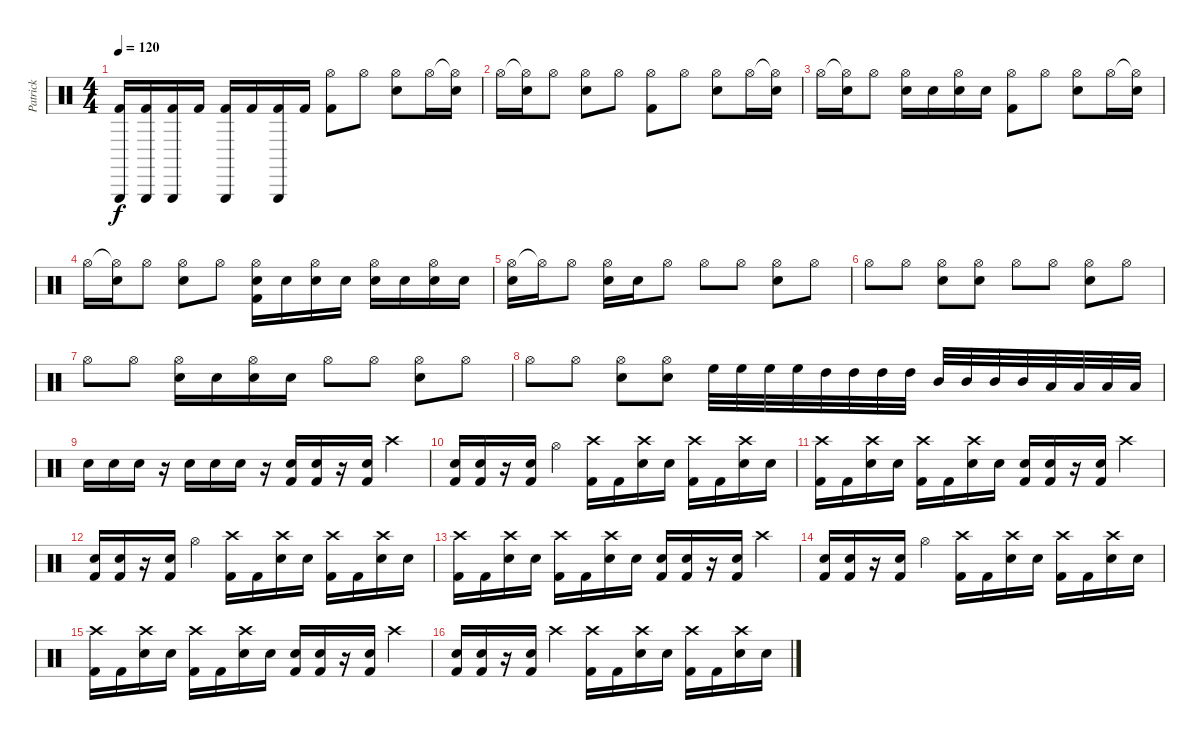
\track ("Patrick" "Patrick") {instrument percussion}
\staff {score}
\articulation defaults
\ts (4 4)
\tempo 120
\clef neutral
\ks c
("Triangle (hit)" "Kick (hit) 2").16{dy f} ("Triangle (hit)" "Kick (hit) 2").16 ("Triangle (hit)" "Kick (hit) 2").16 "Kick (hit) 2".16 ("Triangle (hit)" "Kick (hit) 2").16 "Kick (hit) 2".16 ("Triangle (hit)" "Kick (hit) 2").16 "Kick (hit) 2".16 ("Hi-Hat (open)" "Kick (hit) 2").8 "Hi-Hat (open)".8 ("Hi-Hat (open)" "Snare (hit) 2").8 "Hi-Hat (open)".16 ("Hi-Hat (open)"{t} "Snare (hit) 2").16 |
"Hi-Hat (open)".16 ("Hi-Hat (open)"{t} "Snare (hit) 2").16 "Hi-Hat (open)".8 ("Hi-Hat (open)" "Snare (hit) 2").8 "Hi-Hat (open)".8 ("Hi-Hat (open)" "Kick (hit) 2").8 "Hi-Hat (open)".8 ("Hi-Hat (open)" "Snare (hit) 2").8 "Hi-Hat (open)".16 ("Hi-Hat (open)"{t} "Snare (hit) 2").16 |
"Hi-Hat (open)".16 ("Hi-Hat (open)"{t} "Snare (hit) 2").16 "Hi-Hat (open)".8 ("Hi-Hat (open)" "Snare (hit) 2").16 "Snare (hit) 2".16 ("Hi-Hat (open)" "Snare (hit) 2").16 "Snare (hit) 2".16 ("Hi-Hat (open)" "Kick (hit) 2").8 "Hi-Hat (open)".8 ("Hi-Hat (open)" "Snare (hit) 2").8 "Hi-Hat (open)".16 ("Hi-Hat (open)"{t} "Snare (hit) 2").16 |
"Hi-Hat (open)".16 ("Hi-Hat (open)"{t} "Snare (hit) 2").16 "Hi-Hat (open)".8 ("Hi-Hat (open)" "Snare (hit) 2").8 "Hi-Hat (open)".8 ("Hi-Hat (open)" "Snare (hit) 2" "Kick (hit) 2").16 "Snare (hit) 2".16 ("Hi-Hat (open)" "Snare (hit) 2").16 "Snare (hit) 2".16 ("Hi-Hat (open)" "Snare (hit) 2").16 "Snare (hit) 2".16 ("Hi-Hat (open)" "Snare (hit) 2").16 "Snare (hit) 2".16 |
("Hi-Hat (open)" "Snare (hit) 2").16 "Hi-Hat (open)"{t}.16 "Hi-Hat (open)".8 ("Hi-Hat (open)" "Snare (hit) 2").16 "Snare (hit) 2".16 "Hi-Hat (open)".8 "Hi-Hat (open)".8 "Hi-Hat (open)".8 ("Hi-Hat (open)" "Snare (hit) 2").8 "Hi-Hat (open)".8 |
"Hi-Hat (open)".8 "Hi-Hat (open)".8 ("Hi-Hat (open)" "Snare (hit) 2").8 ("Hi-Hat (open)" "Snare (hit) 2").8 "Hi-Hat (open)".8 "Hi-Hat (open)".8 ("Hi-Hat (open)" "Snare (hit) 2").8 "Hi-Hat (open)".8 |
"Hi-Hat (open)".8 "Hi-Hat (open)".8 ("Hi-Hat (open)" "Snare (hit) 2").16 "Snare (hit) 2".16 ("Hi-Hat (open)" "Snare (hit) 2").16 "Snare (hit) 2".16 "Hi-Hat (open)".8 "Hi-Hat (open)".8 ("Hi-Hat (open)" "Snare (hit) 2").8 "Hi-Hat (open)".8 |
"Hi-Hat (open)".8 "Hi-Hat (open)".8 ("Hi-Hat (open)" "Snare (hit) 2").8 ("Hi-Hat (open)" "Snare (hit) 2").8 "High Floor Tom (hit)".32 "High Floor Tom (hit)".32 "High Floor Tom (hit)".32 "High Floor Tom (hit)".32 "High Tom (hit)".32 "High Tom (hit)".32 "High Tom (hit)".32 "High Tom (hit)".32 "Mid Tom (hit)".32 "Mid Tom (hit)".32 "Mid Tom (hit)".32 "Mid Tom (hit)".32 "Low Tom (hit)".32 "Low Tom (hit)".32 "Low Tom (hit)".32 "Low Tom (hit)".32 |
"Electric Snare (hit)".16 "Electric Snare (hit)".16 "Electric Snare (hit)".16 r.16 "Snare (hit) 2".16 "Snare (hit) 2".16 "Snare (hit) 2".16 r.16 ("Snare (hit) 2" "Kick (hit) 2").16 ("Snare (hit) 2" "Kick (hit) 2").16 r.16 ("Snare (hit) 2" "Kick (hit) 2").16 "Crash high (hit)".4 |
("Snare (hit) 2" "Kick (hit) 2").16 ("Snare (hit) 2" "Kick (hit) 2").16 r.16 ("Snare (hit) 2" "Kick (hit) 2").16 "Hi-Hat (open)".4 ("Crash high (hit)" "Kick (hit) 2").16 "Kick (hit) 2".16 ("Crash high (hit)" "Snare (hit) 2").16 "Snare (hit) 2".16 ("Crash high (hit)" "Kick (hit) 2").16 "Kick (hit) 2".16 ("Crash high (hit)" "Snare (hit) 2").16 "Snare (hit) 2".16 |
("Crash high (hit)" "Kick (hit) 2").16 "Kick (hit) 2".16 ("Crash high (hit)" "Snare (hit) 2").16 "Snare (hit) 2".16 ("Crash high (hit)" "Kick (hit) 2").16 "Kick (hit) 2".16 ("Crash high (hit)" "Snare (hit) 2").16 "Snare (hit) 2".16 ("Snare (hit) 2" "Kick (hit) 2").16 ("Snare (hit) 2" "Kick (hit) 2").16 r.16 ("Snare (hit) 2" "Kick (hit) 2").16 "Crash high (hit)".4 |
("Snare (hit) 2" "Kick (hit) 2").16 ("Snare (hit) 2" "Kick (hit) 2").16 r.16 ("Snare (hit) 2" "Kick (hit) 2").16 "Hi-Hat (open)".4 ("Crash high (hit)" "Kick (hit) 2").16 "Kick (hit) 2".16 ("Crash high (hit)" "Snare (hit) 2").16 "Snare (hit) 2".16 ("Crash high (hit)" "Kick (hit) 2").16 "Kick (hit) 2".16 ("Crash high (hit)" "Snare (hit) 2").16 "Snare (hit) 2".16 |
("Crash high (hit)" "Kick (hit) 2").16 "Kick (hit) 2".16 ("Crash high (hit)" "Snare (hit) 2").16 "Snare (hit) 2".16 ("Crash high (hit)" "Kick (hit) 2").16 "Kick (hit) 2".16 ("Crash high (hit)" "Snare (hit) 2").16 "Snare (hit) 2".16 ("Snare (hit) 2" "Kick (hit) 2").16 ("Snare (hit) 2" "Kick (hit) 2").16 r.16 ("Snare (hit) 2" "Kick (hit) 2").16 "Crash high (hit)".4 |
("Snare (hit) 2" "Kick (hit) 2").16 ("Snare (hit) 2" "Kick (hit) 2").16 r.16 ("Snare (hit) 2" "Kick (hit) 2").16 "Hi-Hat (open)".4 ("Crash high (hit)" "Kick (hit) 2").16 "Kick (hit) 2".16 ("Crash high (hit)" "Snare (hit) 2").16 "Snare (hit) 2".16 ("Crash high (hit)" "Kick (hit) 2").16 "Kick (hit) 2".16 ("Crash high (hit)" "Snare (hit) 2").16 "Snare (hit) 2".16 |
("Crash high (hit)" "Kick (hit) 2").16 "Kick (hit) 2".16 ("Crash high (hit)" "Snare (hit) 2").16 "Snare (hit) 2".16 ("Crash high (hit)" "Kick (hit) 2").16 "Kick (hit) 2".16 ("Crash high (hit)" "Snare (hit) 2").16 "Snare (hit) 2".16 ("Snare (hit) 2" "Kick (hit) 2").16 ("Snare (hit) 2" "Kick (hit) 2").16 r.16 ("Snare (hit) 2" "Kick (hit) 2").16 "Crash high (hit)".4 |
("Snare (hit) 2" "Kick (hit) 2").16 ("Snare (hit) 2" "Kick (hit) 2").16 r.16 ("Snare (hit) 2" "Kick (hit) 2").16 "Crash high (hit)".4 ("Crash high (hit)" "Kick (hit) 2").16 "Kick (hit) 2".16 ("Crash high (hit)" "Snare (hit) 2").16 "Snare (hit) 2".16 ("Crash high (hit)" "Kick (hit) 2").16 "Kick (hit) 2".16 ("Crash high (hit)" "Snare (hit) 2").16 "Snare (hit) 2".16
